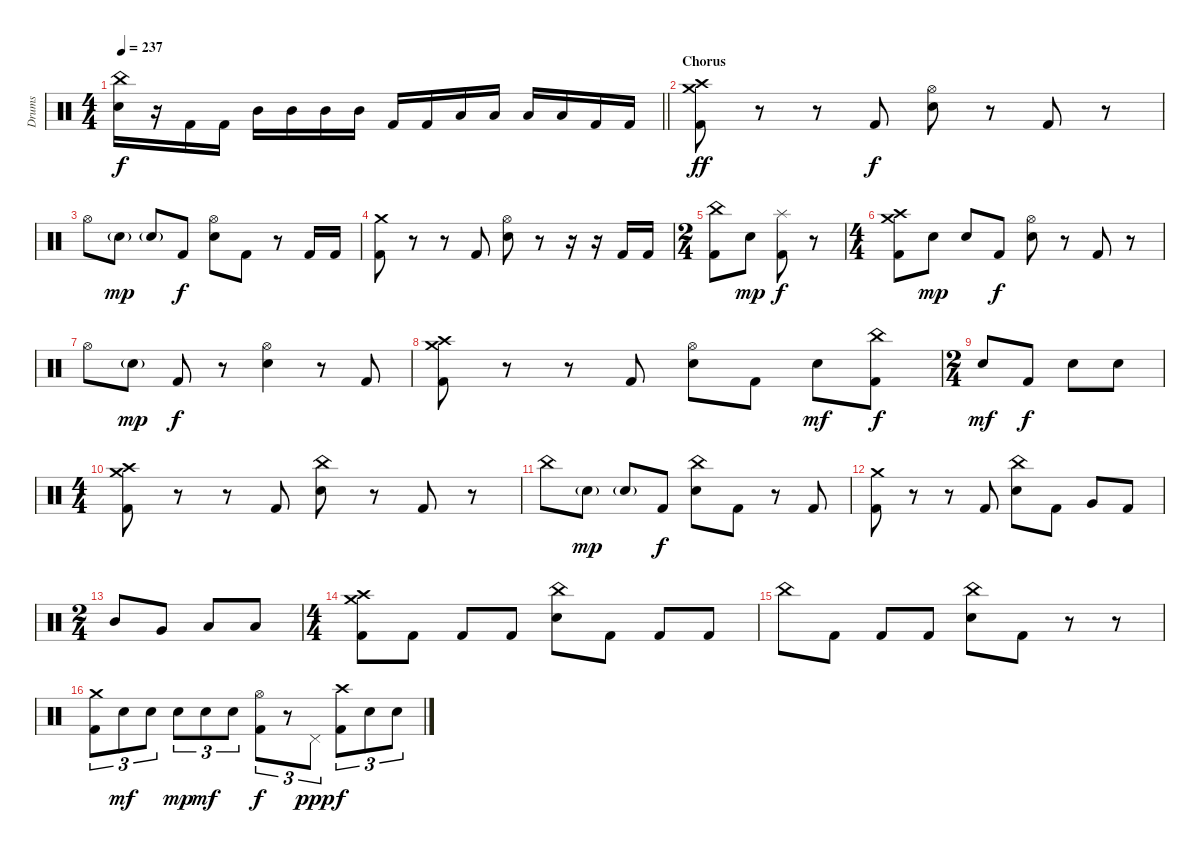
\track ("Drums" "Drums") {instrument percussion}
\staff {score}
\articulation defaults
\ts (4 4)
\tempo 237
\clef neutral
\barLineRight lightlight
\ks c
("China (hit)" "Electric Snare (hit)").16{dy f} r.16 "Kick (hit) 2".16 "Kick (hit) 2".16 "Mid Tom (hit)".16 "Mid Tom (hit)".16 "Mid Tom (hit)".16 "Mid Tom (hit)".16 "Kick (hit) 2".16 "Kick (hit) 2".16 "Low Tom (hit)".16 "Low Tom (hit)".16 "Low Tom (hit)".16 "Low Tom (hit)".16 "Kick (hit) 2".16 "Kick (hit) 2".16 |
\section ("" "Chorus")
("Crash medium (hit)" "Crash high (hit)" "Kick (hit) 2").8{dy ff} r.8 r.8 "Kick (hit) 2".8{dy f} ("Hi-Hat (open)" "Electric Snare (hit)").8 r.8 "Kick (hit) 2".8 r.8 |
"Hi-Hat (open)".8 "Electric Snare (hit)"{g}.8{dy mp} "Electric Snare (hit)"{g}.8 "Kick (hit) 2".8{dy f} ("Hi-Hat (open)" "Electric Snare (hit)").8 "Kick (hit) 2".8 r.8 "Kick (hit) 2".16 "Kick (hit) 2".16 |
("Crash medium (hit)" "Kick (hit) 2").8 r.8 r.8 "Kick (hit) 2".8 ("Hi-Hat (open)" "Electric Snare (hit)").8 r.8 r.16 r.16 "Kick (hit) 2".16 "Kick (hit) 2".16 |
\ts (2 4)
("China (hit)" "Kick (hit) 2").8 "Electric Snare (hit)".8{dy mp} ("Splash (hit)" "Kick (hit) 2").8{dy f} r.8 |
\ts (4 4)
("Crash high (hit)" "Crash medium (hit)" "Kick (hit) 2").8 "Electric Snare (hit)".8{dy mp} "Electric Snare (hit)".8 "Kick (hit) 2".8{dy f} ("Hi-Hat (open)" "Electric Snare (hit)").8 r.8 "Kick (hit) 2".8 r.8 |
"Hi-Hat (open)".8 "Electric Snare (hit)"{g}.8{dy mp} "Kick (hit) 2".8{dy f} r.8 ("Hi-Hat (open)" "Electric Snare (hit)").4 r.8 "Kick (hit) 2".8 |
("Crash high (hit)" "Crash medium (hit)" "Kick (hit) 2").8 r.8 r.8 "Kick (hit) 2".8 ("Hi-Hat (open)" "Electric Snare (hit)").8 "Kick (hit) 2".8 "Electric Snare (hit)".8{dy mf} ("China (hit)" "Kick (hit) 2").8{dy f} |
\ts (2 4)
"Electric Snare (hit)".8{dy mf} "Kick (hit) 2".8{dy f} "Electric Snare (hit)".8 "Electric Snare (hit)".8 |
\ts (4 4)
("Crash high (hit)" "Crash medium (hit)" "Kick (hit) 2").8 r.8 r.8 "Kick (hit) 2".8 ("China (hit)" "Electric Snare (hit)").8 r.8 "Kick (hit) 2".8 r.8 |
"China (hit)".8 "Electric Snare (hit)"{g}.8{dy mp} "Electric Snare (hit)"{g}.8 "Kick (hit) 2".8{dy f} ("China (hit)" "Electric Snare (hit)").8 "Kick (hit) 2".8 r.8 "Kick (hit) 2".8 |
("Crash medium (hit)" "Kick (hit) 2").8 r.8 r.8 "Kick (hit) 2".8 ("China (hit)" "Electric Snare (hit)").8 "Kick (hit) 2".8 "Very Low Tom (hit)".8 "Kick (hit) 2".8 |
\ts (2 4)
"Mid Tom (hit)".8 "Very Low Tom (hit)".8 "Low Floor Tom (hit)".8 "Low Floor Tom (hit)".8 |
\ts (4 4)
("Crash high (hit)" "Crash medium (hit)" "Kick (hit) 2").8 "Kick (hit) 2".8 "Kick (hit) 2".8 "Kick (hit) 2".8 ("China (hit)" "Electric Snare (hit)").8 "Kick (hit) 2".8 "Kick (hit) 2".8 "Kick (hit) 2".8 |
"China (hit)".8 "Kick (hit) 2".8 "Kick (hit) 2".8 "Kick (hit) 2".8 ("China (hit)" "Electric Snare (hit)").8 "Kick (hit) 2".8 r.8 r.8 |
("Crash medium (hit)" "Kick (hit) 2").8{tu (3 2)} "Electric Snare (hit)".8{tu (3 2) dy mf} "Electric Snare (hit)".8{tu (3 2)} "Electric Snare (hit)".8{tu (3 2) dy mp} "Electric Snare (hit)".8{tu (3 2) dy mf} "Electric Snare (hit)".8{tu (3 2)} ("Hi-Hat (open)" "Kick (hit) 2").8{tu (3 2) dy f} r.8{tu (3 2)} "Pedal Hi-Hat (hit)".8{tu (3 2) dy ppp} ("Crash high (hit)" "Kick (hit) 2").8{tu (3 2) dy f} "Electric Snare (hit)".8{tu (3 2)} "Electric Snare (hit)".8{tu (3 2)}
